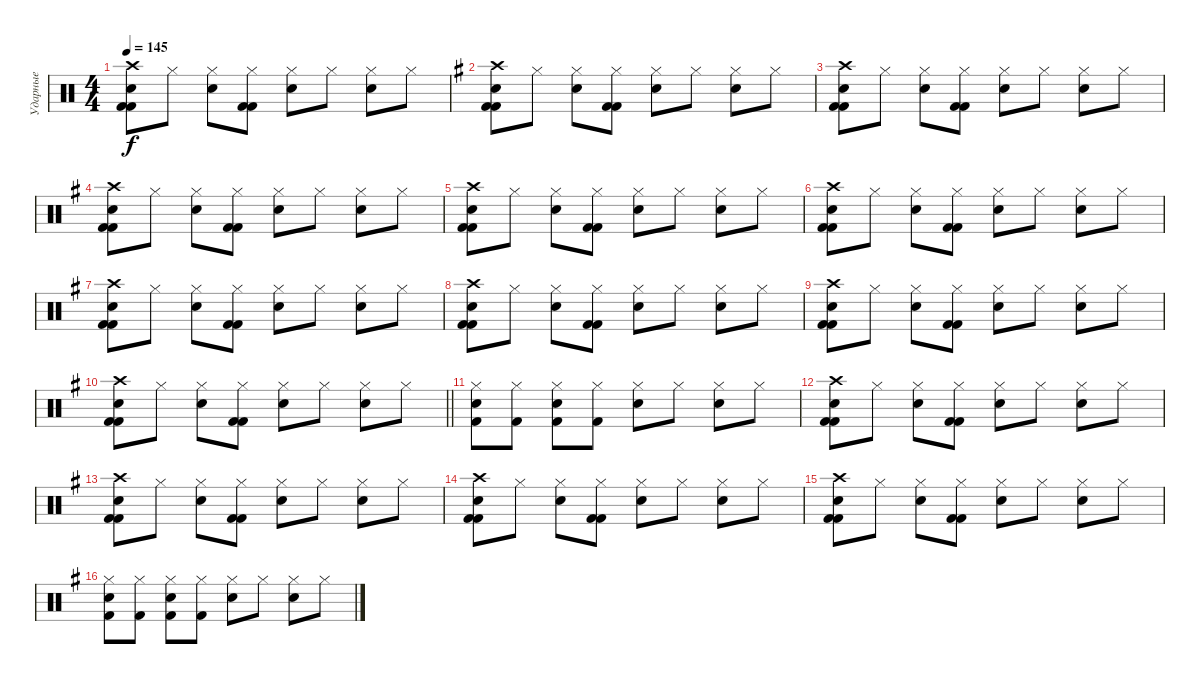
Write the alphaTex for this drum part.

\track ("Ударные" "Ударные") {instrument percussion}
\staff {score}
\articulation defaults
\ts (4 4)
\tempo 145
\clef neutral
\ks c
("Electric Snare (hit)" "Crash high (hit)" "Kick (hit) 2" "Kick (hit) 2").8{dy f} "Hi-Hat (closed)".8 ("Electric Snare (hit)" "Hi-Hat (closed)").8 ("Hi-Hat (closed)" "Kick (hit) 2" "Kick (hit) 2").8 ("Electric Snare (hit)" "Hi-Hat (closed)").8 "Hi-Hat (closed)".8 ("Electric Snare (hit)" "Hi-Hat (closed)").8 "Hi-Hat (closed)".8 |
\ks g
("Electric Snare (hit)" "Crash high (hit)" "Kick (hit) 2" "Kick (hit) 2").8 "Hi-Hat (closed)".8 ("Electric Snare (hit)" "Hi-Hat (closed)").8 ("Hi-Hat (closed)" "Kick (hit) 2" "Kick (hit) 2").8 ("Electric Snare (hit)" "Hi-Hat (closed)").8 "Hi-Hat (closed)".8 ("Electric Snare (hit)" "Hi-Hat (closed)").8 "Hi-Hat (closed)".8 |
("Electric Snare (hit)" "Crash high (hit)" "Kick (hit) 2" "Kick (hit) 2").8 "Hi-Hat (closed)".8 ("Electric Snare (hit)" "Hi-Hat (closed)").8 ("Hi-Hat (closed)" "Kick (hit) 2" "Kick (hit) 2").8 ("Electric Snare (hit)" "Hi-Hat (closed)").8 "Hi-Hat (closed)".8 ("Electric Snare (hit)" "Hi-Hat (closed)").8 "Hi-Hat (closed)".8 |
("Electric Snare (hit)" "Crash high (hit)" "Kick (hit) 2" "Kick (hit) 2").8 "Hi-Hat (closed)".8 ("Electric Snare (hit)" "Hi-Hat (closed)").8 ("Hi-Hat (closed)" "Kick (hit) 2" "Kick (hit) 2").8 ("Electric Snare (hit)" "Hi-Hat (closed)").8 "Hi-Hat (closed)".8 ("Electric Snare (hit)" "Hi-Hat (closed)").8 "Hi-Hat (closed)".8 |
("Electric Snare (hit)" "Crash high (hit)" "Kick (hit) 2" "Kick (hit) 2").8 "Hi-Hat (closed)".8 ("Electric Snare (hit)" "Hi-Hat (closed)").8 ("Hi-Hat (closed)" "Kick (hit) 2" "Kick (hit) 2").8 ("Electric Snare (hit)" "Hi-Hat (closed)").8 "Hi-Hat (closed)".8 ("Electric Snare (hit)" "Hi-Hat (closed)").8 "Hi-Hat (closed)".8 |
("Electric Snare (hit)" "Crash high (hit)" "Kick (hit) 2" "Kick (hit) 2").8 "Hi-Hat (closed)".8 ("Electric Snare (hit)" "Hi-Hat (closed)").8 ("Hi-Hat (closed)" "Kick (hit) 2" "Kick (hit) 2").8 ("Electric Snare (hit)" "Hi-Hat (closed)").8 "Hi-Hat (closed)".8 ("Electric Snare (hit)" "Hi-Hat (closed)").8 "Hi-Hat (closed)".8 |
("Electric Snare (hit)" "Crash high (hit)" "Kick (hit) 2" "Kick (hit) 2").8 "Hi-Hat (closed)".8 ("Electric Snare (hit)" "Hi-Hat (closed)").8 ("Hi-Hat (closed)" "Kick (hit) 2" "Kick (hit) 2").8 ("Electric Snare (hit)" "Hi-Hat (closed)").8 "Hi-Hat (closed)".8 ("Electric Snare (hit)" "Hi-Hat (closed)").8 "Hi-Hat (closed)".8 |
("Electric Snare (hit)" "Crash high (hit)" "Kick (hit) 2" "Kick (hit) 2").8 "Hi-Hat (closed)".8 ("Electric Snare (hit)" "Hi-Hat (closed)").8 ("Hi-Hat (closed)" "Kick (hit) 2" "Kick (hit) 2").8 ("Electric Snare (hit)" "Hi-Hat (closed)").8 "Hi-Hat (closed)".8 ("Electric Snare (hit)" "Hi-Hat (closed)").8 "Hi-Hat (closed)".8 |
("Electric Snare (hit)" "Crash high (hit)" "Kick (hit) 2" "Kick (hit) 2").8 "Hi-Hat (closed)".8 ("Electric Snare (hit)" "Hi-Hat (closed)").8 ("Hi-Hat (closed)" "Kick (hit) 2" "Kick (hit) 2").8 ("Electric Snare (hit)" "Hi-Hat (closed)").8 "Hi-Hat (closed)".8 ("Electric Snare (hit)" "Hi-Hat (closed)").8 "Hi-Hat (closed)".8 |
\barLineRight lightlight
("Electric Snare (hit)" "Crash high (hit)" "Kick (hit) 2" "Kick (hit) 2").8 "Hi-Hat (closed)".8 ("Electric Snare (hit)" "Hi-Hat (closed)").8 ("Hi-Hat (closed)" "Kick (hit) 2" "Kick (hit) 2").8 ("Electric Snare (hit)" "Hi-Hat (closed)").8 "Hi-Hat (closed)".8 ("Electric Snare (hit)" "Hi-Hat (closed)").8 "Hi-Hat (closed)".8 |
("Electric Snare (hit)" "Hi-Hat (closed)" "Kick (hit) 2").8 ("Hi-Hat (closed)" "Kick (hit) 2").8 ("Electric Snare (hit)" "Hi-Hat (closed)" "Kick (hit) 2").8 ("Hi-Hat (closed)" "Kick (hit) 2").8 ("Electric Snare (hit)" "Hi-Hat (closed)").8 "Hi-Hat (closed)".8 ("Electric Snare (hit)" "Hi-Hat (closed)").8 "Hi-Hat (closed)".8 |
("Electric Snare (hit)" "Crash high (hit)" "Kick (hit) 2" "Kick (hit) 2").8 "Hi-Hat (closed)".8 ("Electric Snare (hit)" "Hi-Hat (closed)").8 ("Hi-Hat (closed)" "Kick (hit) 2" "Kick (hit) 2").8 ("Electric Snare (hit)" "Hi-Hat (closed)").8 "Hi-Hat (closed)".8 ("Electric Snare (hit)" "Hi-Hat (closed)").8 "Hi-Hat (closed)".8 |
("Electric Snare (hit)" "Crash high (hit)" "Kick (hit) 2" "Kick (hit) 2").8 "Hi-Hat (closed)".8 ("Electric Snare (hit)" "Hi-Hat (closed)").8 ("Hi-Hat (closed)" "Kick (hit) 2" "Kick (hit) 2").8 ("Electric Snare (hit)" "Hi-Hat (closed)").8 "Hi-Hat (closed)".8 ("Electric Snare (hit)" "Hi-Hat (closed)").8 "Hi-Hat (closed)".8 |
("Electric Snare (hit)" "Crash high (hit)" "Kick (hit) 2" "Kick (hit) 2").8 "Hi-Hat (closed)".8 ("Electric Snare (hit)" "Hi-Hat (closed)").8 ("Hi-Hat (closed)" "Kick (hit) 2" "Kick (hit) 2").8 ("Electric Snare (hit)" "Hi-Hat (closed)").8 "Hi-Hat (closed)".8 ("Electric Snare (hit)" "Hi-Hat (closed)").8 "Hi-Hat (closed)".8 |
("Electric Snare (hit)" "Crash high (hit)" "Kick (hit) 2" "Kick (hit) 2").8 "Hi-Hat (closed)".8 ("Electric Snare (hit)" "Hi-Hat (closed)").8 ("Hi-Hat (closed)" "Kick (hit) 2" "Kick (hit) 2").8 ("Electric Snare (hit)" "Hi-Hat (closed)").8 "Hi-Hat (closed)".8 ("Electric Snare (hit)" "Hi-Hat (closed)").8 "Hi-Hat (closed)".8 |
("Electric Snare (hit)" "Hi-Hat (closed)" "Kick (hit) 2").8 ("Hi-Hat (closed)" "Kick (hit) 2").8 ("Electric Snare (hit)" "Hi-Hat (closed)" "Kick (hit) 2").8 ("Hi-Hat (closed)" "Kick (hit) 2").8 ("Electric Snare (hit)" "Hi-Hat (closed)").8 "Hi-Hat (closed)".8 ("Electric Snare (hit)" "Hi-Hat (closed)").8 "Hi-Hat (closed)".8
